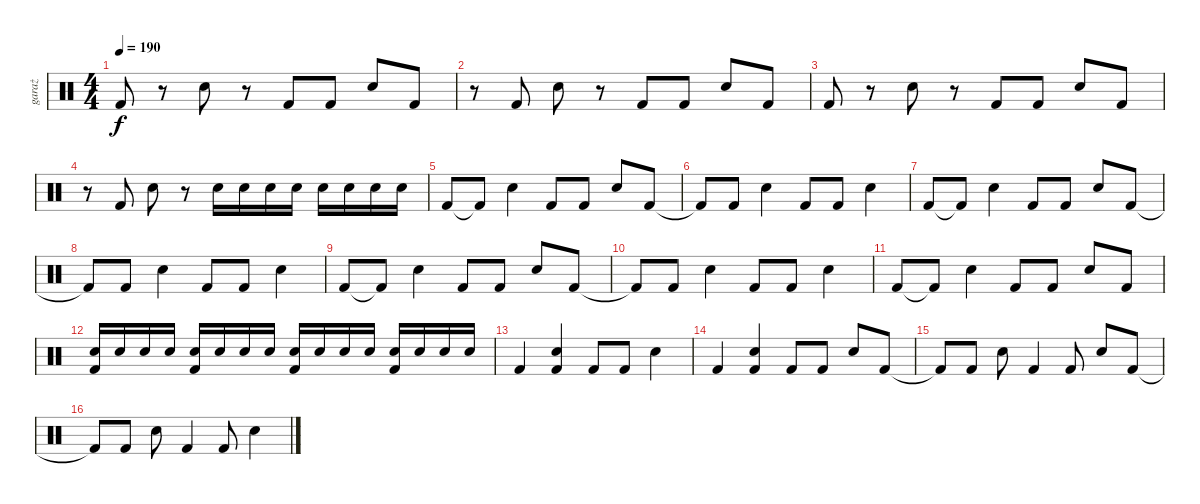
\track ("garaż" "garaż") {instrument percussion}
\staff {score}
\articulation defaults
\ts (4 4)
\tempo 190
\clef neutral
\ks c "Kick (hit) 2".8{dy f}
r.8 "Snare (hit) 2".8 r.8 "Kick (hit) 2".8 "Kick (hit) 2".8 "Snare (hit) 2".8 "Kick (hit) 2".8 |
r.8 "Kick (hit) 2".8 "Snare (hit) 2".8 r.8 "Kick (hit) 2".8 "Kick (hit) 2".8 "Snare (hit) 2".8 "Kick (hit) 2".8 |
"Kick (hit) 2".8 r.8 "Snare (hit) 2".8 r.8 "Kick (hit) 2".8 "Kick (hit) 2".8 "Snare (hit) 2".8 "Kick (hit) 2".8 |
r.8 "Kick (hit) 2".8 "Snare (hit) 2".8 r.8 "Snare (hit) 2".16 "Snare (hit) 2".16 "Snare (hit) 2".16 "Snare (hit) 2".16 "Snare (hit) 2".16 "Snare (hit) 2".16 "Snare (hit) 2".16 "Snare (hit) 2".16 |
"Kick (hit) 2".8 "Kick (hit) 2"{t}.8 "Snare (hit) 2".4 "Kick (hit) 2".8 "Kick (hit) 2".8 "Snare (hit) 2".8 "Kick (hit) 2".8 |
"Kick (hit) 2"{t}.8 "Kick (hit) 2".8 "Snare (hit) 2".4 "Kick (hit) 2".8 "Kick (hit) 2".8 "Snare (hit) 2".4 |
"Kick (hit) 2".8 "Kick (hit) 2"{t}.8 "Snare (hit) 2".4 "Kick (hit) 2".8 "Kick (hit) 2".8 "Snare (hit) 2".8 "Kick (hit) 2".8 |
"Kick (hit) 2"{t}.8 "Kick (hit) 2".8 "Snare (hit) 2".4 "Kick (hit) 2".8 "Kick (hit) 2".8 "Snare (hit) 2".4 |
"Kick (hit) 2".8 "Kick (hit) 2"{t}.8 "Snare (hit) 2".4 "Kick (hit) 2".8 "Kick (hit) 2".8 "Snare (hit) 2".8 "Kick (hit) 2".8 |
"Kick (hit) 2"{t}.8 "Kick (hit) 2".8 "Snare (hit) 2".4 "Kick (hit) 2".8 "Kick (hit) 2".8 "Snare (hit) 2".4 |
"Kick (hit) 2".8 "Kick (hit) 2"{t}.8 "Snare (hit) 2".4 "Kick (hit) 2".8 "Kick (hit) 2".8 "Snare (hit) 2".8 "Kick (hit) 2".8 |
("Snare (hit) 2" "Kick (hit) 2").16 "Snare (hit) 2".16 "Snare (hit) 2".16 "Snare (hit) 2".16 ("Snare (hit) 2" "Kick (hit) 2").16 "Snare (hit) 2".16 "Snare (hit) 2".16 "Snare (hit) 2".16 ("Snare (hit) 2" "Kick (hit) 2").16 "Snare (hit) 2".16 "Snare (hit) 2".16 "Snare (hit) 2".16 ("Snare (hit) 2" "Kick (hit) 2").16 "Snare (hit) 2".16 "Snare (hit) 2".16 "Snare (hit) 2".16 |
"Kick (hit) 2".4 ("Snare (hit) 2" "Kick (hit) 2").4 "Kick (hit) 2".8 "Kick (hit) 2".8 "Snare (hit) 2".4 |
"Kick (hit) 2".4 ("Snare (hit) 2" "Kick (hit) 2").4 "Kick (hit) 2".8 "Kick (hit) 2".8 "Snare (hit) 2".8 "Kick (hit) 2".8 |
"Kick (hit) 2"{t}.8 "Kick (hit) 2".8 "Snare (hit) 2".8 "Kick (hit) 2".4 "Kick (hit) 2".8 "Snare (hit) 2".8 "Kick (hit) 2".8 |
"Kick (hit) 2"{t}.8 "Kick (hit) 2".8 "Snare (hit) 2".8 "Kick (hit) 2".4 "Kick (hit) 2".8 "Snare (hit) 2".4
